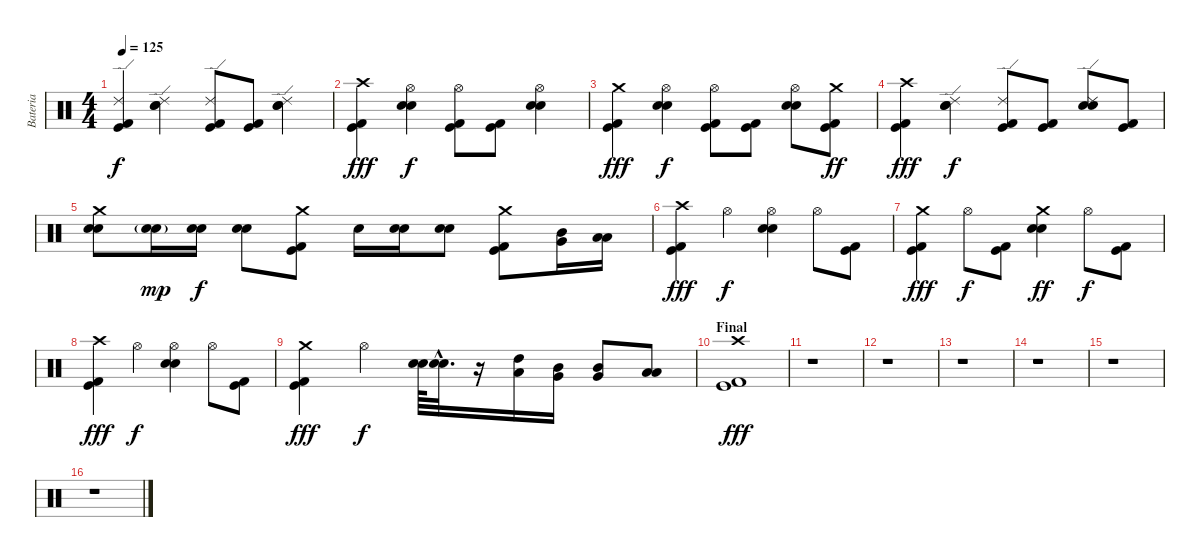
\track ("Bateria" "Bateria") {instrument percussion}
\staff {score}
\articulation defaults
\ts (4 4)
\tempo 125
\clef neutral
\ks c
("Ride (edge) 2" "Kick (hit) 2" "Kick (hit)").4{dy f} ("Ride (edge) 2" "Electric Snare (hit)" "Snare (hit) 2").4 ("Ride (edge) 2" "Kick (hit) 2" "Kick (hit)").8 ("Kick (hit) 2" "Kick (hit)").8 ("Ride (edge) 2" "Electric Snare (hit)" "Snare (hit) 2").4 |
("Crash high (hit)" "Kick (hit) 2" "Kick (hit)").4{dy fff} ("Hi-Hat (open)" "Electric Snare (hit)" "Snare (hit) 2").4{dy f} ("Hi-Hat (open)" "Kick (hit) 2" "Kick (hit)").8 ("Kick (hit) 2" "Kick (hit)").8 ("Hi-Hat (open)" "Electric Snare (hit)" "Snare (hit) 2").4 |
("Crash medium (hit)" "Kick (hit) 2" "Kick (hit)").4{dy fff} ("Hi-Hat (open)" "Electric Snare (hit)" "Snare (hit) 2").4{dy f} ("Hi-Hat (open)" "Kick (hit) 2" "Kick (hit)").8 ("Kick (hit) 2" "Kick (hit)").8 ("Hi-Hat (open)" "Electric Snare (hit)" "Snare (hit) 2").8 ("Crash medium (hit)" "Kick (hit) 2" "Kick (hit)").8{dy ff} |
("Crash high (hit)" "Kick (hit) 2" "Kick (hit)").4{dy fff} ("Ride (edge) 2" "Electric Snare (hit)" "Snare (hit) 2").4{dy f} ("Ride (edge) 2" "Kick (hit) 2" "Kick (hit)").8 ("Kick (hit) 2" "Kick (hit)").8 ("Ride (edge) 2" "Electric Snare (hit)" "Snare (hit) 2").8 ("Kick (hit) 2" "Kick (hit)").8 |
("Crash medium (hit)" "Electric Snare (hit)" "Snare (hit) 2").8 ("Electric Snare (hit)"{g} "Snare (hit) 2"{g}).16{dy mp} ("Electric Snare (hit)" "Snare (hit) 2").16{dy f} ("Electric Snare (hit)" "Snare (hit) 2").8 ("Crash medium (hit)" "Kick (hit) 2" "Kick (hit)").8 "Snare (hit)"{x}.16 ("Electric Snare (hit)" "Snare (hit) 2").16 ("Electric Snare (hit)" "Snare (hit) 2").8 ("Crash medium (hit)" "Kick (hit) 2" "Kick (hit)").8 ("Mid Tom (hit)" "Very Low Tom (hit)").16 ("Low Tom (hit)" "Low Floor Tom (hit)").16 |
("Crash high (hit)" "Kick (hit) 2" "Kick (hit)").4{dy fff} "Hi-Hat (open)".4{dy f} ("Hi-Hat (open)" "Electric Snare (hit)" "Snare (hit) 2").4 "Hi-Hat (open)".8 ("Kick (hit) 2" "Kick (hit)").8 |
("Crash medium (hit)" "Kick (hit) 2" "Kick (hit)").4{dy fff} "Hi-Hat (open)".8{dy f} ("Kick (hit) 2" "Kick (hit)").8 ("Crash medium (hit)" "Electric Snare (hit)" "Snare (hit) 2").4{dy ff} "Hi-Hat (open)".8{dy f} ("Kick (hit) 2" "Kick (hit)").8 |
("Crash high (hit)" "Kick (hit) 2" "Kick (hit)").4{dy fff} "Hi-Hat (open)".4{dy f} ("Hi-Hat (open)" "Electric Snare (hit)" "Snare (hit) 2").4 "Hi-Hat (open)".8 ("Kick (hit) 2" "Kick (hit)").8 |
("Crash medium (hit)" "Kick (hit) 2" "Kick (hit)").4{dy fff} "Hi-Hat (open)".4{dy f} ("Electric Snare (hit)" "Snare (hit) 2").64 ("Electric Snare (hit)"{hac} "Snare (hit) 2"{hac}).32{d} r.16 ("High Tom (hit)" "Low Tom (hit)").16 ("Mid Tom (hit)" "Very Low Tom (hit)").16 ("Mid Tom (hit)" "Very Low Tom (hit)").8 ("Low Tom (hit)" "Low Floor Tom (hit)").8 |
\section ("" "Final")
("Crash high (hit)" "Kick (hit) 2" "Kick (hit)").1{dy fff} |
r.1 |
r.1 |
r.1 |
r.1 |
r.1 |
r.1
